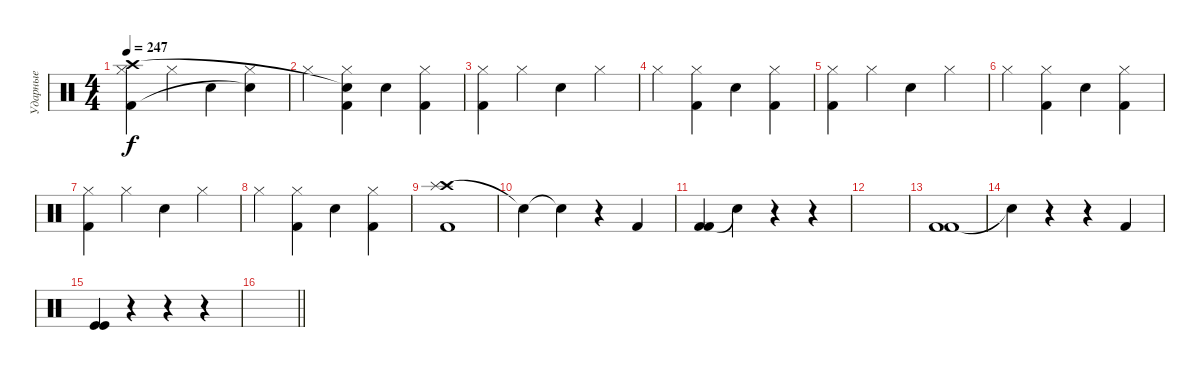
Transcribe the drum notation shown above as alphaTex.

\track ("Ударные" "Ударные") {instrument percussion}
\staff {score}
\articulation defaults
\ts (4 4)
\tempo 247
\clef neutral
\ks c
("Hi-Hat (closed)" "Kick (hit) 2" "Crash high (hit)").4{dy f} "Hi-Hat (closed)".4 "Snare (hit) 2".4 ("Hi-Hat (closed)" "Snare (hit)"{t}).4 |
"Hi-Hat (closed)".4 ("Hi-Hat (closed)" "Kick (hit) 2" "Snare (hit)"{t}).4 "Snare (hit) 2".4 ("Hi-Hat (closed)" "Kick (hit) 2").4 |
("Hi-Hat (closed)" "Kick (hit) 2").4 "Hi-Hat (closed)".4 "Snare (hit) 2".4 "Hi-Hat (closed)".4 |
"Hi-Hat (closed)".4 ("Hi-Hat (closed)" "Kick (hit) 2").4 "Snare (hit) 2".4 ("Hi-Hat (closed)" "Kick (hit) 2").4 |
("Hi-Hat (closed)" "Kick (hit) 2").4 "Hi-Hat (closed)".4 "Snare (hit) 2".4 "Hi-Hat (closed)".4 |
"Hi-Hat (closed)".4 ("Hi-Hat (closed)" "Kick (hit) 2").4 "Snare (hit) 2".4 ("Hi-Hat (closed)" "Kick (hit) 2").4 |
("Hi-Hat (closed)" "Kick (hit) 2").4 "Hi-Hat (closed)".4 "Snare (hit) 2".4 "Hi-Hat (closed)".4 |
"Hi-Hat (closed)".4 ("Hi-Hat (closed)" "Kick (hit) 2").4 "Snare (hit) 2".4 ("Hi-Hat (closed)" "Kick (hit) 2").4 |
("Crash high (hit)" "Splash (hit)" "Kick (hit) 2").1 |
"Snare (hit)"{t}.4 "Snare (hit)"{t}.4 r.4 "Kick (hit) 2".4 |
("Kick (hit) 2" "Kick (hit) 2").4 "Snare (hit)"{t}.4 r.4 r.4 |
|
("Kick (hit) 2" "Kick (hit) 2").1 |
"Snare (hit)"{t}.4 r.4 r.4 "Kick (hit) 2".4 |
("Kick (hit)" "Kick (hit)").4 r.4 r.4 r.4 |
\barLineRight lightlight
